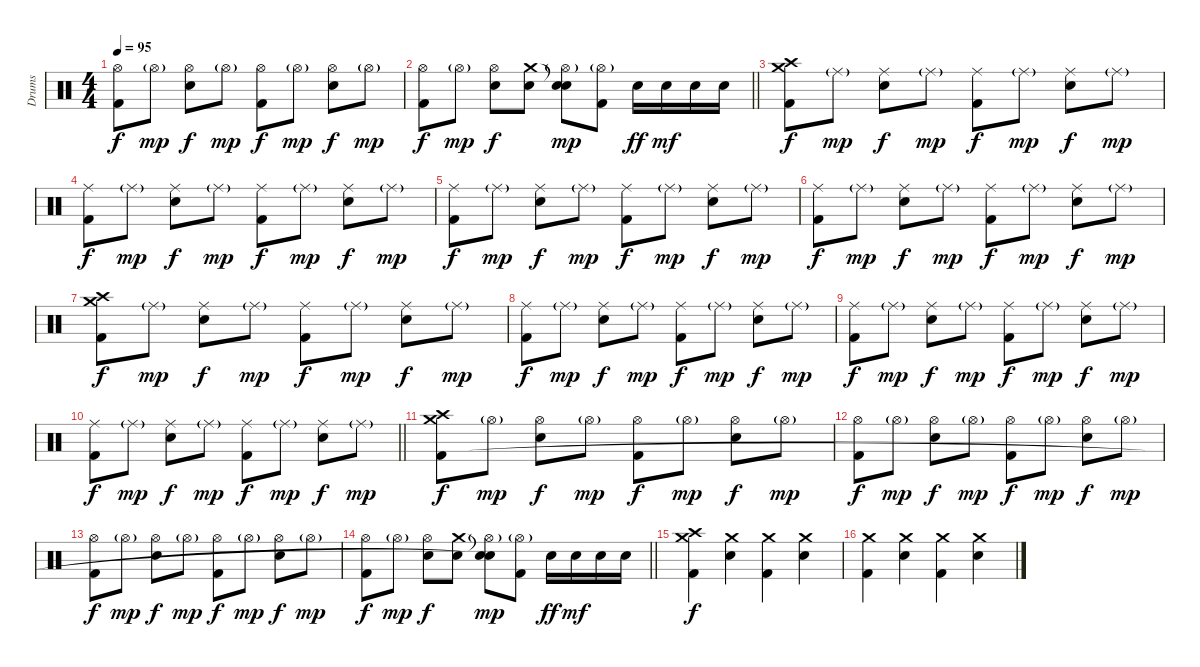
\track ("Drums" "Drums") {instrument percussion}
\staff {score}
\articulation defaults
\ts (4 4)
\tempo 95
\clef neutral
\ks c
("Hi-Hat (open)" "Kick (hit) 2").8{dy f} "Hi-Hat (open)"{g}.8{dy mp} ("Hi-Hat (open)" "Electric Snare (hit)").8{dy f} "Hi-Hat (open)"{g}.8{dy mp} ("Hi-Hat (open)" "Kick (hit) 2").8{dy f} "Hi-Hat (open)"{g}.8{dy mp} ("Hi-Hat (open)" "Electric Snare (hit)").8{dy f} "Hi-Hat (open)"{g}.8{dy mp} |
\barLineRight lightlight
("Hi-Hat (open)" "Kick (hit) 2").8{dy f} "Hi-Hat (open)"{g}.8{dy mp} ("Hi-Hat (open)" "Electric Snare (hit)").8{dy f} ("Crash medium (hit)" "Electric Snare (hit)").8 ("Snare (hit)"{t} "Hi-Hat (open)"{g} "Snare (hit)"{t}).8{dy mp} ("Hi-Hat (open)"{g} "Kick (hit) 2").8 "Electric Snare (hit)".16{dy ff} "Electric Snare (hit)".16{dy mf} "Electric Snare (hit)".16 "Electric Snare (hit)".16 |
("Crash high (hit)" "Crash medium (hit)" "Kick (hit) 2").8{dy f} "Ride (middle)"{g}.8{dy mp} ("Ride (middle)" "Electric Snare (hit)").8{dy f} "Ride (middle)"{g}.8{dy mp} ("Ride (middle)" "Kick (hit) 2").8{dy f} "Ride (middle)"{g}.8{dy mp} ("Ride (middle)" "Electric Snare (hit)").8{dy f} "Ride (middle)"{g}.8{dy mp} |
("Ride (middle)" "Kick (hit) 2").8{dy f} "Ride (middle)"{g}.8{dy mp} ("Ride (middle)" "Electric Snare (hit)").8{dy f} "Ride (middle)"{g}.8{dy mp} ("Ride (middle)" "Kick (hit) 2").8{dy f} "Ride (middle)"{g}.8{dy mp} ("Ride (middle)" "Electric Snare (hit)").8{dy f} "Ride (middle)"{g}.8{dy mp} |
("Ride (middle)" "Kick (hit) 2").8{dy f} "Ride (middle)"{g}.8{dy mp} ("Ride (middle)" "Electric Snare (hit)").8{dy f} "Ride (middle)"{g}.8{dy mp} ("Ride (middle)" "Kick (hit) 2").8{dy f} "Ride (middle)"{g}.8{dy mp} ("Ride (middle)" "Electric Snare (hit)").8{dy f} "Ride (middle)"{g}.8{dy mp} |
("Ride (middle)" "Kick (hit) 2").8{dy f} "Ride (middle)"{g}.8{dy mp} ("Ride (middle)" "Electric Snare (hit)").8{dy f} "Ride (middle)"{g}.8{dy mp} ("Ride (middle)" "Kick (hit) 2").8{dy f} "Ride (middle)"{g}.8{dy mp} ("Ride (middle)" "Electric Snare (hit)").8{dy f} "Ride (middle)"{g}.8{dy mp} |
("Crash high (hit)" "Crash medium (hit)" "Kick (hit) 2").8{dy f} "Ride (middle)"{g}.8{dy mp} ("Ride (middle)" "Electric Snare (hit)").8{dy f} "Ride (middle)"{g}.8{dy mp} ("Ride (middle)" "Kick (hit) 2").8{dy f} "Ride (middle)"{g}.8{dy mp} ("Ride (middle)" "Electric Snare (hit)").8{dy f} "Ride (middle)"{g}.8{dy mp} |
("Ride (middle)" "Kick (hit) 2").8{dy f} "Ride (middle)"{g}.8{dy mp} ("Ride (middle)" "Electric Snare (hit)").8{dy f} "Ride (middle)"{g}.8{dy mp} ("Ride (middle)" "Kick (hit) 2").8{dy f} "Ride (middle)"{g}.8{dy mp} ("Ride (middle)" "Electric Snare (hit)").8{dy f} "Ride (middle)"{g}.8{dy mp} |
("Ride (middle)" "Kick (hit) 2").8{dy f} "Ride (middle)"{g}.8{dy mp} ("Ride (middle)" "Electric Snare (hit)").8{dy f} "Ride (middle)"{g}.8{dy mp} ("Ride (middle)" "Kick (hit) 2").8{dy f} "Ride (middle)"{g}.8{dy mp} ("Ride (middle)" "Electric Snare (hit)").8{dy f} "Ride (middle)"{g}.8{dy mp} |
\barLineRight lightlight
("Ride (middle)" "Kick (hit) 2").8{dy f} "Ride (middle)"{g}.8{dy mp} ("Ride (middle)" "Electric Snare (hit)").8{dy f} "Ride (middle)"{g}.8{dy mp} ("Ride (middle)" "Kick (hit) 2").8{dy f} "Ride (middle)"{g}.8{dy mp} ("Ride (middle)" "Electric Snare (hit)").8{dy f} "Ride (middle)"{g}.8{dy mp} |
("Crash high (hit)" "Crash medium (hit)" "Kick (hit) 2").8{dy f} "Hi-Hat (open)"{g}.8{dy mp} ("Hi-Hat (open)" "Electric Snare (hit)").8{dy f} "Hi-Hat (open)"{g}.8{dy mp} ("Hi-Hat (open)" "Kick (hit) 2").8{dy f} "Hi-Hat (open)"{g}.8{dy mp} ("Hi-Hat (open)" "Electric Snare (hit)").8{dy f} "Hi-Hat (open)"{g}.8{dy mp} |
("Hi-Hat (open)" "Kick (hit) 2").8{dy f} "Hi-Hat (open)"{g}.8{dy mp} ("Hi-Hat (open)" "Electric Snare (hit)").8{dy f} "Hi-Hat (open)"{g}.8{dy mp} ("Hi-Hat (open)" "Kick (hit) 2").8{dy f} "Hi-Hat (open)"{g}.8{dy mp} ("Hi-Hat (open)" "Electric Snare (hit)").8{dy f} "Hi-Hat (open)"{g}.8{dy mp} |
("Hi-Hat (open)" "Kick (hit) 2").8{dy f} "Hi-Hat (open)"{g}.8{dy mp} ("Hi-Hat (open)" "Electric Snare (hit)").8{dy f} "Hi-Hat (open)"{g}.8{dy mp} ("Hi-Hat (open)" "Kick (hit) 2").8{dy f} "Hi-Hat (open)"{g}.8{dy mp} ("Hi-Hat (open)" "Electric Snare (hit)").8{dy f} "Hi-Hat (open)"{g}.8{dy mp} |
\barLineRight lightlight
("Hi-Hat (open)" "Kick (hit) 2").8{dy f} "Hi-Hat (open)"{g}.8{dy mp} ("Hi-Hat (open)" "Electric Snare (hit)").8{dy f} ("Crash medium (hit)" "Electric Snare (hit)").8 ("Snare (hit)"{t} "Hi-Hat (open)"{g} "Snare (hit)"{t}).8{dy mp} ("Hi-Hat (open)"{g} "Kick (hit) 2").8 "Electric Snare (hit)".16{dy ff} "Electric Snare (hit)".16{dy mf} "Electric Snare (hit)".16 "Electric Snare (hit)".16 |
("Crash high (hit)" "Crash medium (hit)" "Kick (hit) 2").4{dy f} ("Crash medium (hit)" "Electric Snare (hit)").4 ("Crash medium (hit)" "Kick (hit) 2").4 ("Crash medium (hit)" "Electric Snare (hit)").4 |
("Crash medium (hit)" "Kick (hit) 2").4 ("Crash medium (hit)" "Electric Snare (hit)").4 ("Crash medium (hit)" "Kick (hit) 2").4 ("Crash medium (hit)" "Electric Snare (hit)").4
